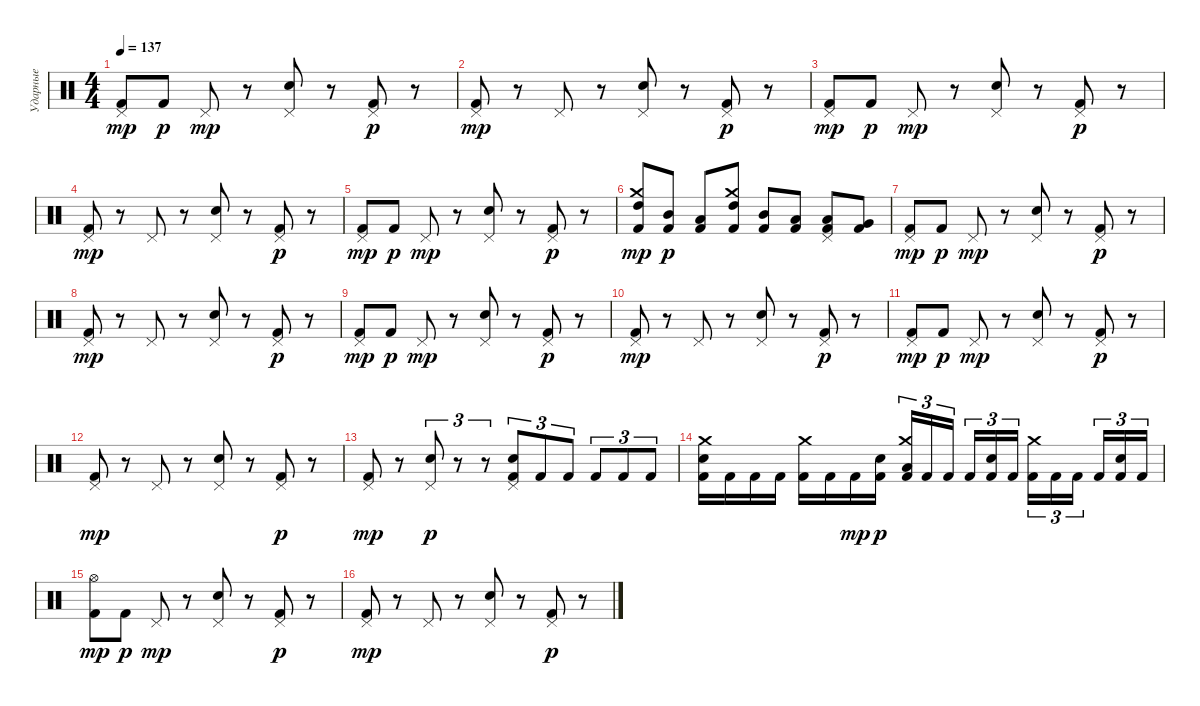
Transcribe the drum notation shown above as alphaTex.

\track ("Ударные" "Ударные") {instrument percussion}
\staff {score}
\articulation defaults
\ts (4 4)
\tempo 137
\clef neutral
\ks c
("Pedal Hi-Hat (hit)" "Kick (hit) 2").8{dy mp} "Kick (hit) 2".8{dy p} "Pedal Hi-Hat (hit)".8{dy mp} r.8 ("Pedal Hi-Hat (hit)" "Snare (hit) 2").8 r.8 ("Pedal Hi-Hat (hit)" "Kick (hit) 2").8{dy p} r.8 |
("Pedal Hi-Hat (hit)" "Kick (hit) 2").8{dy mp} r.8 "Pedal Hi-Hat (hit)".8 r.8 ("Pedal Hi-Hat (hit)" "Snare (hit) 2").8 r.8 ("Pedal Hi-Hat (hit)" "Kick (hit) 2").8{dy p} r.8 |
("Pedal Hi-Hat (hit)" "Kick (hit) 2").8{dy mp} "Kick (hit) 2".8{dy p} "Pedal Hi-Hat (hit)".8{dy mp} r.8 ("Pedal Hi-Hat (hit)" "Snare (hit) 2").8 r.8 ("Pedal Hi-Hat (hit)" "Kick (hit) 2").8{dy p} r.8 |
("Pedal Hi-Hat (hit)" "Kick (hit) 2").8{dy mp} r.8 "Pedal Hi-Hat (hit)".8 r.8 ("Pedal Hi-Hat (hit)" "Snare (hit) 2").8 r.8 ("Pedal Hi-Hat (hit)" "Kick (hit) 2").8{dy p} r.8 |
("Pedal Hi-Hat (hit)" "Kick (hit) 2").8{dy mp} "Kick (hit) 2".8{dy p} "Pedal Hi-Hat (hit)".8{dy mp} r.8 ("Pedal Hi-Hat (hit)" "Snare (hit) 2").8 r.8 ("Pedal Hi-Hat (hit)" "Kick (hit) 2").8{dy p} r.8 |
("Crash medium (hit)" "High Tom (hit)" "Kick (hit) 2").8{dy mp} ("Mid Tom (hit)" "Kick (hit) 2").8{dy p} ("Low Tom (hit)" "Kick (hit) 2").8 ("Crash medium (hit)" "High Tom (hit)" "Kick (hit) 2").8 ("Mid Tom (hit)" "Kick (hit) 2").8 ("Low Tom (hit)" "Kick (hit) 2").8 ("Pedal Hi-Hat (hit)" "Low Tom (hit)" "Kick (hit) 2").8 ("Very Low Tom (hit)" "Kick (hit) 2").8 |
("Pedal Hi-Hat (hit)" "Kick (hit) 2").8{dy mp} "Kick (hit) 2".8{dy p} "Pedal Hi-Hat (hit)".8{dy mp} r.8 ("Pedal Hi-Hat (hit)" "Snare (hit) 2").8 r.8 ("Pedal Hi-Hat (hit)" "Kick (hit) 2").8{dy p} r.8 |
("Pedal Hi-Hat (hit)" "Kick (hit) 2").8{dy mp} r.8 "Pedal Hi-Hat (hit)".8 r.8 ("Pedal Hi-Hat (hit)" "Snare (hit) 2").8 r.8 ("Pedal Hi-Hat (hit)" "Kick (hit) 2").8{dy p} r.8 |
("Pedal Hi-Hat (hit)" "Kick (hit) 2").8{dy mp} "Kick (hit) 2".8{dy p} "Pedal Hi-Hat (hit)".8{dy mp} r.8 ("Pedal Hi-Hat (hit)" "Snare (hit) 2").8 r.8 ("Pedal Hi-Hat (hit)" "Kick (hit) 2").8{dy p} r.8 |
("Pedal Hi-Hat (hit)" "Kick (hit) 2").8{dy mp} r.8 "Pedal Hi-Hat (hit)".8 r.8 ("Pedal Hi-Hat (hit)" "Snare (hit) 2").8 r.8 ("Pedal Hi-Hat (hit)" "Kick (hit) 2").8{dy p} r.8 |
("Pedal Hi-Hat (hit)" "Kick (hit) 2").8{dy mp} "Kick (hit) 2".8{dy p} "Pedal Hi-Hat (hit)".8{dy mp} r.8 ("Pedal Hi-Hat (hit)" "Snare (hit) 2").8 r.8 ("Pedal Hi-Hat (hit)" "Kick (hit) 2").8{dy p} r.8 |
("Pedal Hi-Hat (hit)" "Kick (hit) 2").8{dy mp} r.8 "Pedal Hi-Hat (hit)".8 r.8 ("Pedal Hi-Hat (hit)" "Snare (hit) 2").8 r.8 ("Pedal Hi-Hat (hit)" "Kick (hit) 2").8{dy p} r.8 |
("Pedal Hi-Hat (hit)" "Kick (hit) 2").8{dy mp} r.8 ("Pedal Hi-Hat (hit)" "Snare (hit) 2").8{tu (3 2) dy p} r.8{tu (3 2)} r.8{tu (3 2)} ("Pedal Hi-Hat (hit)" "Snare (hit) 2" "Kick (hit) 2").8{tu (3 2)} "Kick (hit) 2".8{tu (3 2)} "Kick (hit) 2".8{tu (3 2)} "Kick (hit) 2".8{tu (3 2)} "Kick (hit) 2".8{tu (3 2)} "Kick (hit) 2".8{tu (3 2)} |
("Crash medium (hit)" "Snare (hit) 2" "Kick (hit) 2").16 "Kick (hit) 2".16 "Kick (hit) 2".16 "Kick (hit) 2".16 ("Crash medium (hit)" "Kick (hit) 2").16 "Kick (hit) 2".16 "Kick (hit) 2".16{dy mp} ("Snare (hit) 2" "Kick (hit) 2").16{dy p} ("Crash medium (hit)" "Low Tom (hit)" "Kick (hit) 2").16{tu (3 2)} "Kick (hit) 2".16{tu (3 2)} "Kick (hit) 2".16{tu (3 2) beam splitsecondary} "Kick (hit) 2".16{tu (3 2)} ("Snare (hit) 2" "Kick (hit) 2").16{tu (3 2)} "Kick (hit) 2".16{tu (3 2)} ("Crash medium (hit)" "Kick (hit) 2").16{tu (3 2)} "Kick (hit) 2".16{tu (3 2)} "Kick (hit) 2".16{tu (3 2) beam splitsecondary} "Kick (hit) 2".16{tu (3 2)} ("Snare (hit) 2" "Kick (hit) 2").16{tu (3 2)} "Kick (hit) 2".16{tu (3 2)} |
("Hi-Hat (open)" "Kick (hit) 2").8{dy mp} "Kick (hit) 2".8{dy p} "Pedal Hi-Hat (hit)".8{dy mp} r.8 ("Pedal Hi-Hat (hit)" "Snare (hit) 2").8 r.8 ("Pedal Hi-Hat (hit)" "Kick (hit) 2").8{dy p} r.8 |
("Pedal Hi-Hat (hit)" "Kick (hit) 2").8{dy mp} r.8 "Pedal Hi-Hat (hit)".8 r.8 ("Pedal Hi-Hat (hit)" "Snare (hit) 2").8 r.8 ("Pedal Hi-Hat (hit)" "Kick (hit) 2").8{dy p} r.8
